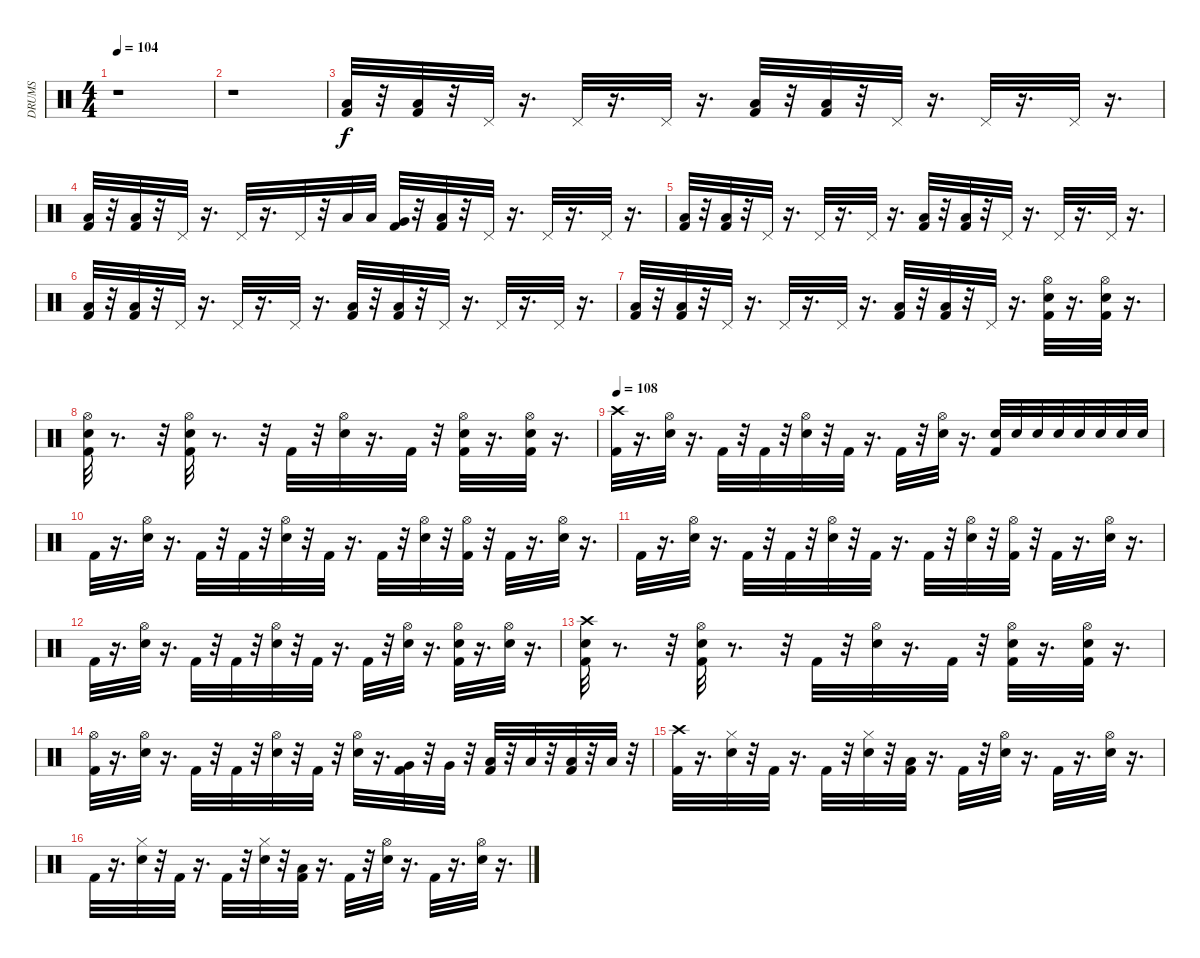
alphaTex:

\track ("DRUMS" "DRUMS") {instrument percussion}
\staff {score}
\articulation defaults
\ts (4 4)
\tempo 104
\clef neutral
\ks c
r.1{dy f} |
r.1 |
("Kick (hit) 2" "Low Tom (hit)").32 r.32 ("Low Tom (hit)" "Kick (hit) 2").32 r.32 "Pedal Hi-Hat (hit)".32 r.16{d} "Pedal Hi-Hat (hit)".32 r.16{d} "Pedal Hi-Hat (hit)".32 r.16{d} ("Kick (hit) 2" "Low Tom (hit)").32 r.32 ("Low Tom (hit)" "Kick (hit) 2").32 r.32 "Pedal Hi-Hat (hit)".32 r.16{d} "Pedal Hi-Hat (hit)".32 r.16{d} "Pedal Hi-Hat (hit)".32 r.16{d} |
("Kick (hit) 2" "Low Tom (hit)").32 r.32 ("Kick (hit) 2" "Low Tom (hit)").32 r.32 "Pedal Hi-Hat (hit)".32 r.16{d} "Pedal Hi-Hat (hit)".32 r.16{d} "Pedal Hi-Hat (hit)".32 r.32 "Low Tom (hit)".32 "Low Tom (hit)".32 ("Kick (hit) 2" "Very Low Tom (hit)").32 r.32 ("Kick (hit) 2" "Low Floor Tom (hit)").32 r.32 "Pedal Hi-Hat (hit)".32 r.16{d} "Pedal Hi-Hat (hit)".32 r.16{d} "Pedal Hi-Hat (hit)".32 r.16{d} |
("Kick (hit) 2" "Low Tom (hit)").32 r.32 ("Low Tom (hit)" "Kick (hit) 2").32 r.32 "Pedal Hi-Hat (hit)".32 r.16{d} "Pedal Hi-Hat (hit)".32 r.16{d} "Pedal Hi-Hat (hit)".32 r.16{d} ("Kick (hit) 2" "Low Tom (hit)").32 r.32 ("Low Tom (hit)" "Kick (hit) 2").32 r.32 "Pedal Hi-Hat (hit)".32 r.16{d} "Pedal Hi-Hat (hit)".32 r.16{d} "Pedal Hi-Hat (hit)".32 r.16{d} |
("Kick (hit) 2" "Low Tom (hit)").32 r.32 ("Low Tom (hit)" "Kick (hit) 2").32 r.32 "Pedal Hi-Hat (hit)".32 r.16{d} "Pedal Hi-Hat (hit)".32 r.16{d} "Pedal Hi-Hat (hit)".32 r.16{d} ("Kick (hit) 2" "Low Tom (hit)").32 r.32 ("Low Tom (hit)" "Kick (hit) 2").32 r.32 "Pedal Hi-Hat (hit)".32 r.16{d} "Pedal Hi-Hat (hit)".32 r.16{d} "Pedal Hi-Hat (hit)".32 r.16{d} |
("Kick (hit) 2" "Low Tom (hit)").32 r.32 ("Low Tom (hit)" "Kick (hit) 2").32 r.32 "Pedal Hi-Hat (hit)".32 r.16{d} "Pedal Hi-Hat (hit)".32 r.16{d} "Pedal Hi-Hat (hit)".32 r.16{d} ("Kick (hit) 2" "Low Tom (hit)").32 r.32 ("Low Tom (hit)" "Kick (hit) 2").32 r.32 "Pedal Hi-Hat (hit)".32 r.16{d} ("Electric Snare (hit)" "Kick (hit) 2" "Hi-Hat (open)").32 r.16{d} ("Electric Snare (hit)" "Kick (hit) 2" "Hi-Hat (open)").32 r.16{d} |
("Kick (hit) 2" "Electric Snare (hit)" "Hi-Hat (open)").32 r.8{d} r.32 ("Electric Snare (hit)" "Kick (hit) 2" "Hi-Hat (open)").32 r.8{d} r.32 "Kick (hit) 2".32 r.32 ("Electric Snare (hit)" "Hi-Hat (open)").32 r.16{d} "Kick (hit) 2".32 r.32 ("Electric Snare (hit)" "Kick (hit) 2" "Hi-Hat (open)").32 r.16{d} ("Electric Snare (hit)" "Kick (hit) 2" "Hi-Hat (open)").32 r.16{d} |
\tempo 108
("Kick (hit) 2" "Crash high (hit)").32 r.16{d} ("Electric Snare (hit)" "Hi-Hat (open)").32 r.16{d} "Kick (hit) 2".32 r.32 "Kick (hit) 2".32 r.32 ("Electric Snare (hit)" "Hi-Hat (open)").32 r.32 "Kick (hit) 2".32 r.16{d} "Kick (hit) 2".32 r.32 ("Electric Snare (hit)" "Hi-Hat (open)").32 r.16{d} ("Kick (hit) 2" "Electric Snare (hit)").32 "Electric Snare (hit)".32 "Electric Snare (hit)".32 "Electric Snare (hit)".32 "Electric Snare (hit)".32 "Electric Snare (hit)".32 "Electric Snare (hit)".32 "Electric Snare (hit)".32 |
"Kick (hit) 2".32 r.16{d} ("Electric Snare (hit)" "Hi-Hat (open)").32 r.16{d} "Kick (hit) 2".32 r.32 "Kick (hit) 2".32 r.32 ("Electric Snare (hit)" "Hi-Hat (open)").32 r.32 "Kick (hit) 2".32 r.16{d} "Kick (hit) 2".32 r.32 ("Electric Snare (hit)" "Hi-Hat (open)").32 r.32 ("Hi-Hat (open)" "Kick (hit) 2").32 r.32 "Kick (hit) 2".32 r.16{d} ("Electric Snare (hit)" "Hi-Hat (open)").32 r.16{d} |
"Kick (hit) 2".32 r.16{d} ("Electric Snare (hit)" "Hi-Hat (open)").32 r.16{d} "Kick (hit) 2".32 r.32 "Kick (hit) 2".32 r.32 ("Electric Snare (hit)" "Hi-Hat (open)").32 r.32 "Kick (hit) 2".32 r.16{d} "Kick (hit) 2".32 r.32 ("Electric Snare (hit)" "Hi-Hat (open)").32 r.32 ("Hi-Hat (open)" "Kick (hit) 2").32 r.32 "Kick (hit) 2".32 r.16{d} ("Electric Snare (hit)" "Hi-Hat (open)").32 r.16{d} |
"Kick (hit) 2".32 r.16{d} ("Electric Snare (hit)" "Hi-Hat (open)").32 r.16{d} "Kick (hit) 2".32 r.32 "Kick (hit) 2".32 r.32 ("Electric Snare (hit)" "Hi-Hat (open)").32 r.32 "Kick (hit) 2".32 r.16{d} "Kick (hit) 2".32 r.32 ("Electric Snare (hit)" "Hi-Hat (open)").32 r.16{d} ("Kick (hit) 2" "Electric Snare (hit)" "Hi-Hat (open)").32 r.16{d} ("Electric Snare (hit)" "Hi-Hat (open)").32 r.16{d} |
("Kick (hit) 2" "Electric Snare (hit)" "Crash high (hit)").32 r.8{d} r.32 ("Electric Snare (hit)" "Kick (hit) 2" "Hi-Hat (open)").32 r.8{d} r.32 "Kick (hit) 2".32 r.32 ("Electric Snare (hit)" "Hi-Hat (open)").32 r.16{d} "Kick (hit) 2".32 r.32 ("Electric Snare (hit)" "Kick (hit) 2" "Hi-Hat (open)").32 r.16{d} ("Electric Snare (hit)" "Kick (hit) 2" "Hi-Hat (open)").32 r.16{d} |
("Kick (hit) 2" "Hi-Hat (open)").32 r.16{d} ("Electric Snare (hit)" "Hi-Hat (open)").32 r.16{d} "Kick (hit) 2".32 r.32 "Kick (hit) 2".32 r.32 ("Electric Snare (hit)" "Hi-Hat (open)").32 r.32 "Kick (hit) 2".32 r.32 ("Electric Snare (hit)" "Hi-Hat (open)").32 r.16{d} ("Very Low Tom (hit)" "Kick (hit) 2").32 r.32 "Very Low Tom (hit)".32 r.32 ("Low Floor Tom (hit)" "Kick (hit) 2").32 r.32 "Low Floor Tom (hit)".32 r.32 ("Low Floor Tom (hit)" "Kick (hit) 2").32 r.32 "Low Floor Tom (hit)".32 r.32 |
("Kick (hit) 2" "Crash high (hit)").32 r.16{d} ("Electric Snare (hit)" "Hi-Hat (closed)").32 r.32 "Kick (hit) 2".32 r.16{d} "Kick (hit) 2".32 r.32 ("Electric Snare (hit)" "Hi-Hat (closed)").32 r.32 ("Kick (hit) 2" "Low Tom (hit)").32 r.16{d} "Kick (hit) 2".32 r.32 ("Hi-Hat (open)" "Electric Snare (hit)").32 r.16{d} "Kick (hit) 2".32 r.16{d} ("Hi-Hat (open)" "Electric Snare (hit)").32 r.16{d} |
"Kick (hit) 2".32 r.16{d} ("Electric Snare (hit)" "Hi-Hat (closed)").32 r.32 "Kick (hit) 2".32 r.16{d} "Kick (hit) 2".32 r.32 ("Electric Snare (hit)" "Hi-Hat (closed)").32 r.32 ("Kick (hit) 2" "Low Tom (hit)").32 r.16{d} "Kick (hit) 2".32 r.32 ("Electric Snare (hit)" "Hi-Hat (open)").32 r.16{d} "Kick (hit) 2".32 r.16{d} ("Electric Snare (hit)" "Hi-Hat (open)").32 r.16{d}
